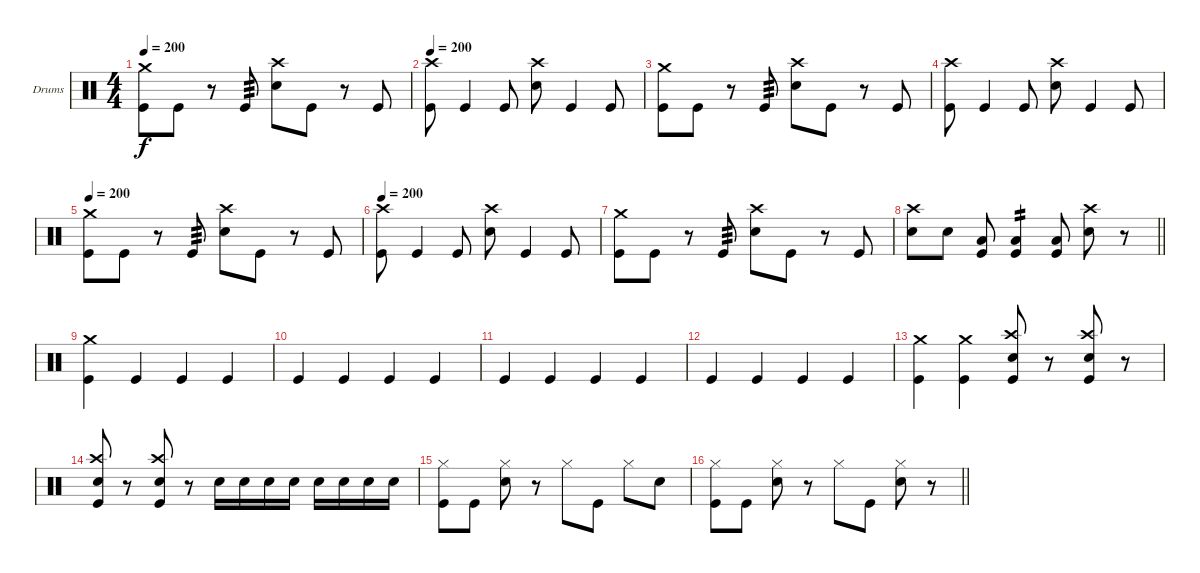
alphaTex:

\bracketExtendMode groupsimilarinstruments
\firstSystemTrackNameOrientation horizontal
\otherSystemsTrackNameOrientation horizontal
\track ("Drumkit" "Drums") {instrument percussion}
\staff {score}
\articulation defaults
\ts (4 4)
\tempo 200
\clef neutral
\ks c
("Crash medium (hit)" "Kick (hit)").8{dy f} "Kick (hit)".8 r.8 "Kick (hit)".8{tp 3} ("Crash high (hit)" "Snare (hit) 2").8 "Kick (hit)".8 r.8 "Kick (hit)".8 |
\tempo 200
("Crash high (hit)" "Kick (hit)").8 "Kick (hit)".4 "Kick (hit)".8 ("Crash high (hit)" "Snare (hit) 2").8 "Kick (hit)".4 "Kick (hit)".8 |
("Crash medium (hit)" "Kick (hit)").8 "Kick (hit)".8 r.8 "Kick (hit)".8{tp 3} ("Crash high (hit)" "Snare (hit) 2").8 "Kick (hit)".8 r.8 "Kick (hit)".8 |
("Crash high (hit)" "Kick (hit)").8 "Kick (hit)".4 "Kick (hit)".8 ("Crash high (hit)" "Snare (hit) 2").8 "Kick (hit)".4 "Kick (hit)".8 |
\tempo 200
("Crash medium (hit)" "Kick (hit)").8 "Kick (hit)".8 r.8 "Kick (hit)".8{tp 3} ("Crash high (hit)" "Snare (hit) 2").8 "Kick (hit)".8 r.8 "Kick (hit)".8 |
\tempo 200
("Crash high (hit)" "Kick (hit)").8 "Kick (hit)".4 "Kick (hit)".8 ("Crash high (hit)" "Snare (hit) 2").8 "Kick (hit)".4 "Kick (hit)".8 |
("Crash medium (hit)" "Kick (hit)").8 "Kick (hit)".8 r.8 "Kick (hit)".8{tp 3} ("Crash high (hit)" "Snare (hit) 2").8 "Kick (hit)".8 r.8 "Kick (hit)".8 |
\barLineRight lightlight
("Crash high (hit)" "Snare (hit) 2").8 "Snare (hit) 2".8 ("Low Tom (hit)" "Kick (hit)").8 ("Low Tom (hit)" "Kick (hit)").4{tp 2} ("Low Tom (hit)" "Kick (hit)").8 ("Crash high (hit)" "Snare (hit) 2").8 r.8 |
\section ("" "")
("Crash medium (hit)" "Kick (hit)").4 "Kick (hit)".4 "Kick (hit)".4 "Kick (hit)".4 |
"Kick (hit)".4 "Kick (hit)".4 "Kick (hit)".4 "Kick (hit)".4 |
"Kick (hit)".4 "Kick (hit)".4 "Kick (hit)".4 "Kick (hit)".4 |
"Kick (hit)".4 "Kick (hit)".4 "Kick (hit)".4 "Kick (hit)".4 |
("Crash medium (hit)" "Kick (hit)").4 ("Crash medium (hit)" "Kick (hit)").4 ("Crash high (hit)" "Snare (hit) 2" "Kick (hit)").8 r.8 ("Crash high (hit)" "Snare (hit) 2" "Kick (hit)").8 r.8 |
("Crash high (hit)" "Snare (hit) 2" "Kick (hit)").8 r.8 ("Crash high (hit)" "Snare (hit) 2" "Kick (hit)").8 r.8 "Snare (hit) 2".16 "Snare (hit) 2".16 "Snare (hit) 2".16 "Snare (hit) 2".16 "Snare (hit) 2".16 "Snare (hit) 2".16 "Snare (hit) 2".16 "Snare (hit) 2".16 |
("Hi-Hat (closed)" "Kick (hit)").8 "Kick (hit)".8 ("Hi-Hat (closed)" "Snare (hit) 2").8 r.8 "Hi-Hat (closed)".8 "Kick (hit)".8 "Hi-Hat (closed)".8 "Snare (hit) 2".8 |
\barLineRight lightlight
("Hi-Hat (closed)" "Kick (hit)").8 "Kick (hit)".8 ("Hi-Hat (closed)" "Snare (hit) 2").8 r.8 "Hi-Hat (closed)".8 "Kick (hit)".8 ("Hi-Hat (closed)" "Snare (hit) 2").8 r.8
